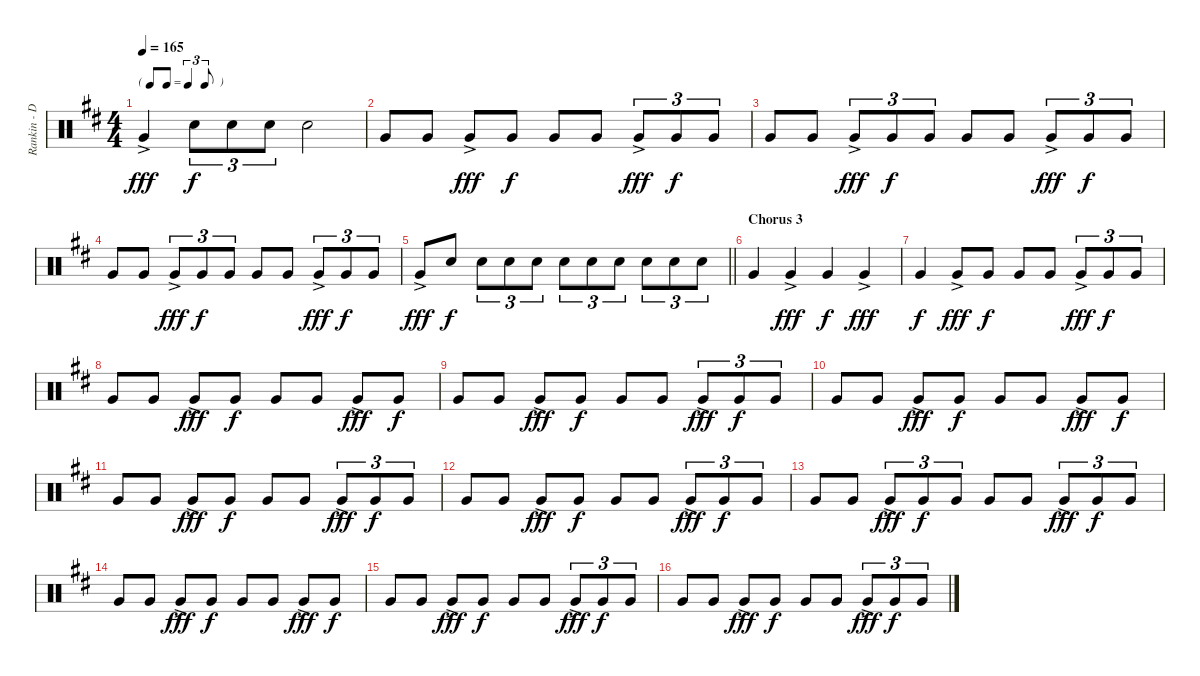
\track ("Rankin - Drums" "Rankin - D") {instrument percussion}
\staff {score}
\articulation defaults
\ts (4 4)
\tf triplet8th
\tempo 165
\clef neutral
\ks d "Very Low Tom (hit)"{ac}.4{dy fff} "Electric Snare (hit)".8{tu (3 2) dy f} "Electric Snare (hit)".8{tu (3 2)} "Electric Snare (hit)".8{tu (3 2)} "Electric Snare (hit)".2
|
"Very Low Tom (hit)".8 "Very Low Tom (hit)".8 "Very Low Tom (hit)"{ac}.8{dy fff} "Very Low Tom (hit)".8{dy f} "Very Low Tom (hit)".8 "Very Low Tom (hit)".8 "Very Low Tom (hit)"{ac}.8{tu (3 2) dy fff} "Very Low Tom (hit)".8{tu (3 2) dy f} "Very Low Tom (hit)".8{tu (3 2)} |
"Very Low Tom (hit)".8 "Very Low Tom (hit)".8 "Very Low Tom (hit)"{ac}.8{tu (3 2) dy fff} "Very Low Tom (hit)".8{tu (3 2) dy f} "Very Low Tom (hit)".8{tu (3 2)} "Very Low Tom (hit)".8 "Very Low Tom (hit)".8 "Very Low Tom (hit)"{ac}.8{tu (3 2) dy fff} "Very Low Tom (hit)".8{tu (3 2) dy f} "Very Low Tom (hit)".8{tu (3 2)} |
"Very Low Tom (hit)".8 "Very Low Tom (hit)".8 "Very Low Tom (hit)"{ac}.8{tu (3 2) dy fff} "Very Low Tom (hit)".8{tu (3 2) dy f} "Very Low Tom (hit)".8{tu (3 2)} "Very Low Tom (hit)".8 "Very Low Tom (hit)".8 "Very Low Tom (hit)"{ac}.8{tu (3 2) dy fff} "Very Low Tom (hit)".8{tu (3 2) dy f} "Very Low Tom (hit)".8{tu (3 2)} |
\barLineRight lightlight "Very Low Tom (hit)"{ac}.8{dy fff} "Electric Snare (hit)".8{dy f} "Electric Snare (hit)".8{tu (3 2)} "Electric Snare (hit)".8{tu (3 2)} "Electric Snare (hit)".8{tu (3 2)} "Electric Snare (hit)".8{tu (3 2)} "Electric Snare (hit)".8{tu (3 2)} "Electric Snare (hit)".8{tu (3 2)} "Electric Snare (hit)".8{tu (3 2)} "Electric Snare (hit)".8{tu (3 2)} "Electric Snare (hit)".8{tu (3 2)}
|
\section ("" "Chorus 3")
"Very Low Tom (hit)".4 "Very Low Tom (hit)"{ac}.4{dy fff} "Very Low Tom (hit)".4{dy f} "Very Low Tom (hit)"{ac}.4{dy fff} |
"Very Low Tom (hit)".4{dy f} "Very Low Tom (hit)"{ac}.8{dy fff} "Very Low Tom (hit)".8{dy f} "Very Low Tom (hit)".8 "Very Low Tom (hit)".8 "Very Low Tom (hit)"{ac}.8{tu (3 2) dy fff} "Very Low Tom (hit)".8{tu (3 2) dy f} "Very Low Tom (hit)".8{tu (3 2)} |
"Very Low Tom (hit)".8 "Very Low Tom (hit)".8 "Very Low Tom (hit)"{ac}.8{dy fff} "Very Low Tom (hit)".8{dy f} "Very Low Tom (hit)".8 "Very Low Tom (hit)".8 "Very Low Tom (hit)"{ac}.8{dy fff} "Very Low Tom (hit)".8{dy f} |
"Very Low Tom (hit)".8 "Very Low Tom (hit)".8 "Very Low Tom (hit)"{ac}.8{dy fff} "Very Low Tom (hit)".8{dy f} "Very Low Tom (hit)".8 "Very Low Tom (hit)".8 "Very Low Tom (hit)"{ac}.8{tu (3 2) dy fff} "Very Low Tom (hit)".8{tu (3 2) dy f} "Very Low Tom (hit)".8{tu (3 2)} |
"Very Low Tom (hit)".8 "Very Low Tom (hit)".8 "Very Low Tom (hit)"{ac}.8{dy fff} "Very Low Tom (hit)".8{dy f} "Very Low Tom (hit)".8 "Very Low Tom (hit)".8 "Very Low Tom (hit)"{ac}.8{dy fff} "Very Low Tom (hit)".8{dy f} |
"Very Low Tom (hit)".8 "Very Low Tom (hit)".8 "Very Low Tom (hit)"{ac}.8{dy fff} "Very Low Tom (hit)".8{dy f} "Very Low Tom (hit)".8 "Very Low Tom (hit)".8 "Very Low Tom (hit)"{ac}.8{tu (3 2) dy fff} "Very Low Tom (hit)".8{tu (3 2) dy f} "Very Low Tom (hit)".8{tu (3 2)} |
"Very Low Tom (hit)".8 "Very Low Tom (hit)".8 "Very Low Tom (hit)"{ac}.8{dy fff} "Very Low Tom (hit)".8{dy f} "Very Low Tom (hit)".8 "Very Low Tom (hit)".8 "Very Low Tom (hit)"{ac}.8{tu (3 2) dy fff} "Very Low Tom (hit)".8{tu (3 2) dy f} "Very Low Tom (hit)".8{tu (3 2)} |
"Very Low Tom (hit)".8 "Very Low Tom (hit)".8 "Very Low Tom (hit)"{ac}.8{tu (3 2) dy fff} "Very Low Tom (hit)".8{tu (3 2) dy f} "Very Low Tom (hit)".8{tu (3 2)} "Very Low Tom (hit)".8 "Very Low Tom (hit)".8 "Very Low Tom (hit)"{ac}.8{tu (3 2) dy fff} "Very Low Tom (hit)".8{tu (3 2) dy f} "Very Low Tom (hit)".8{tu (3 2)} |
"Very Low Tom (hit)".8 "Very Low Tom (hit)".8 "Very Low Tom (hit)"{ac}.8{dy fff} "Very Low Tom (hit)".8{dy f} "Very Low Tom (hit)".8 "Very Low Tom (hit)".8 "Very Low Tom (hit)"{ac}.8{dy fff} "Very Low Tom (hit)".8{dy f} |
"Very Low Tom (hit)".8 "Very Low Tom (hit)".8 "Very Low Tom (hit)"{ac}.8{dy fff} "Very Low Tom (hit)".8{dy f} "Very Low Tom (hit)".8 "Very Low Tom (hit)".8 "Very Low Tom (hit)"{ac}.8{tu (3 2) dy fff} "Very Low Tom (hit)".8{tu (3 2) dy f} "Very Low Tom (hit)".8{tu (3 2)} |
"Very Low Tom (hit)".8 "Very Low Tom (hit)".8 "Very Low Tom (hit)"{ac}.8{dy fff} "Very Low Tom (hit)".8{dy f} "Very Low Tom (hit)".8 "Very Low Tom (hit)".8 "Very Low Tom (hit)"{ac}.8{tu (3 2) dy fff} "Very Low Tom (hit)".8{tu (3 2) dy f} "Very Low Tom (hit)".8{tu (3 2)}
